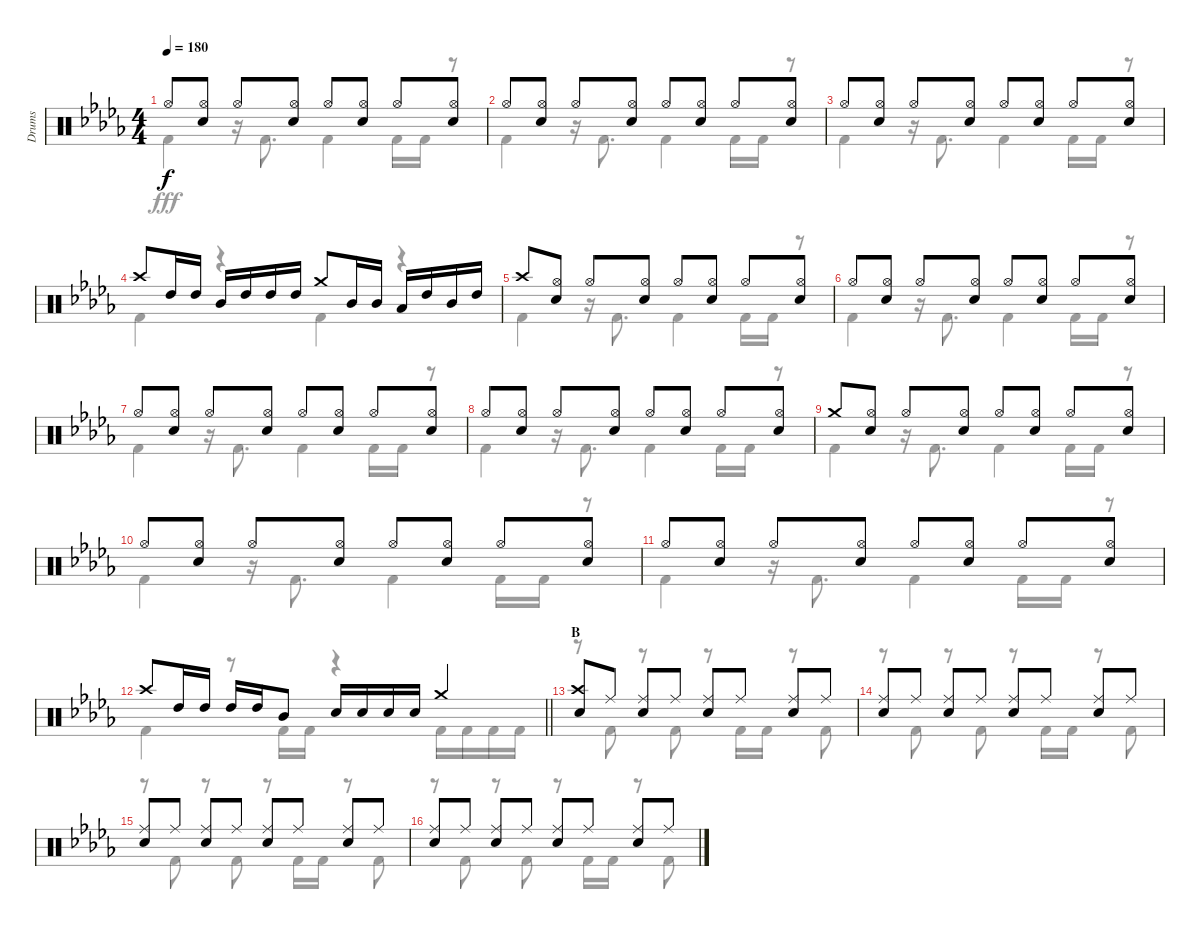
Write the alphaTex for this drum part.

\track ("Drums" "Drums") {instrument percussion}
\staff {score}
\articulation defaults
\voice
\ts (4 4)
\tempo 180
\clef neutral
\ks db "Hi-Hat (open)".8{dy f}
("Hi-Hat (open)" "Snare (hit) 2").8 "Hi-Hat (open)".8 ("Hi-Hat (open)" "Snare (hit) 2").8 "Hi-Hat (open)".8 ("Hi-Hat (open)" "Snare (hit) 2").8 "Hi-Hat (open)".8 ("Hi-Hat (open)" "Snare (hit) 2").8 |
"Hi-Hat (open)".8 ("Hi-Hat (open)" "Snare (hit) 2").8 "Hi-Hat (open)".8 ("Hi-Hat (open)" "Snare (hit) 2").8 "Hi-Hat (open)".8 ("Hi-Hat (open)" "Snare (hit) 2").8 "Hi-Hat (open)".8 ("Hi-Hat (open)" "Snare (hit) 2").8 |
"Hi-Hat (open)".8 ("Hi-Hat (open)" "Snare (hit) 2").8 "Hi-Hat (open)".8 ("Hi-Hat (open)" "Snare (hit) 2").8 "Hi-Hat (open)".8 ("Hi-Hat (open)" "Snare (hit) 2").8 "Hi-Hat (open)".8 ("Hi-Hat (open)" "Snare (hit) 2").8 |
"Crash high (hit)".8 "High Tom (hit)".16 "High Tom (hit)".16 "Mid Tom (hit)".16 "High Tom (hit)".16 "High Tom (hit)".16 "High Tom (hit)".16 "Crash medium (hit)".8 "Mid Tom (hit)".16 "Mid Tom (hit)".16 "Low Tom (hit)".16 "High Tom (hit)".16 "Mid Tom (hit)".16 "High Tom (hit)".16 |
"Crash high (hit)".8 ("Hi-Hat (open)" "Snare (hit) 2").8 "Hi-Hat (open)".8 ("Hi-Hat (open)" "Snare (hit) 2").8 "Hi-Hat (open)".8 ("Hi-Hat (open)" "Snare (hit) 2").8 "Hi-Hat (open)".8 ("Hi-Hat (open)" "Snare (hit) 2").8 |
"Hi-Hat (open)".8 ("Hi-Hat (open)" "Snare (hit) 2").8 "Hi-Hat (open)".8 ("Hi-Hat (open)" "Snare (hit) 2").8 "Hi-Hat (open)".8 ("Hi-Hat (open)" "Snare (hit) 2").8 "Hi-Hat (open)".8 ("Hi-Hat (open)" "Snare (hit) 2").8 |
"Hi-Hat (open)".8 ("Hi-Hat (open)" "Snare (hit) 2").8 "Hi-Hat (open)".8 ("Hi-Hat (open)" "Snare (hit) 2").8 "Hi-Hat (open)".8 ("Hi-Hat (open)" "Snare (hit) 2").8 "Hi-Hat (open)".8 ("Hi-Hat (open)" "Snare (hit) 2").8 |
"Hi-Hat (open)".8 ("Hi-Hat (open)" "Snare (hit) 2").8 "Hi-Hat (open)".8 ("Hi-Hat (open)" "Snare (hit) 2").8 "Hi-Hat (open)".8 ("Hi-Hat (open)" "Snare (hit) 2").8 "Hi-Hat (open)".8 ("Hi-Hat (open)" "Snare (hit) 2").8 |
"Crash medium (hit)".8 ("Hi-Hat (open)" "Snare (hit) 2").8 "Hi-Hat (open)".8 ("Hi-Hat (open)" "Snare (hit) 2").8 "Hi-Hat (open)".8 ("Hi-Hat (open)" "Snare (hit) 2").8 "Hi-Hat (open)".8 ("Hi-Hat (open)" "Snare (hit) 2").8 |
"Hi-Hat (open)".8 ("Hi-Hat (open)" "Snare (hit) 2").8 "Hi-Hat (open)".8 ("Hi-Hat (open)" "Snare (hit) 2").8 "Hi-Hat (open)".8 ("Hi-Hat (open)" "Snare (hit) 2").8 "Hi-Hat (open)".8 ("Hi-Hat (open)" "Snare (hit) 2").8 |
"Hi-Hat (open)".8 ("Hi-Hat (open)" "Snare (hit) 2").8 "Hi-Hat (open)".8 ("Hi-Hat (open)" "Snare (hit) 2").8 "Hi-Hat (open)".8 ("Hi-Hat (open)" "Snare (hit) 2").8 "Hi-Hat (open)".8 ("Hi-Hat (open)" "Snare (hit) 2").8 |
\barLineRight lightlight "Crash high (hit)".8 "High Tom (hit)".16 "High Tom (hit)".16 "High Tom (hit)".16 "High Tom (hit)".16 "Mid Tom (hit)".8 "Snare (hit) 2".16 "Snare (hit) 2".16 "Snare (hit) 2".16 "Snare (hit) 2".16 "Crash medium (hit)".4
|
\section ("" "B")
("Crash high (hit)" "Snare (hit) 2").8 "Ride (middle)".8 ("Ride (middle)" "Snare (hit) 2").8 "Ride (middle)".8 ("Ride (middle)" "Snare (hit) 2").8 "Ride (middle)".8 ("Ride (middle)" "Snare (hit) 2").8 "Ride (middle)".8 |
("Ride (middle)" "Snare (hit) 2").8 "Ride (middle)".8 ("Ride (middle)" "Snare (hit) 2").8 "Ride (middle)".8 ("Ride (middle)" "Snare (hit) 2").8 "Ride (middle)".8 ("Ride (middle)" "Snare (hit) 2").8 "Ride (middle)".8 |
("Ride (middle)" "Snare (hit) 2").8 "Ride (middle)".8 ("Ride (middle)" "Snare (hit) 2").8 "Ride (middle)".8 ("Ride (middle)" "Snare (hit) 2").8 "Ride (middle)".8 ("Ride (middle)" "Snare (hit) 2").8 "Ride (middle)".8 |
("Ride (middle)" "Snare (hit) 2").8 "Ride (middle)".8 ("Ride (middle)" "Snare (hit) 2").8 "Ride (middle)".8 ("Ride (middle)" "Snare (hit) 2").8 "Ride (middle)".8 ("Ride (middle)" "Snare (hit) 2").8 "Ride (middle)".8
\voice
\clef neutral
\ottava regular
\simile none
\ks db "Kick (hit) 2".4{dy fff}
r.16 "Kick (hit) 2".8{d} "Kick (hit) 2".4 "Kick (hit) 2".16 "Kick (hit) 2".16 r.8 |
"Kick (hit) 2".4 r.16 "Kick (hit) 2".8{d} "Kick (hit) 2".4 "Kick (hit) 2".16 "Kick (hit) 2".16 r.8 |
"Kick (hit) 2".4 r.16 "Kick (hit) 2".8{d} "Kick (hit) 2".4 "Kick (hit) 2".16 "Kick (hit) 2".16 r.8 |
"Kick (hit) 2".4 r.4 "Kick (hit) 2".4 r.4 |
"Kick (hit) 2".4 r.16 "Kick (hit) 2".8{d} "Kick (hit) 2".4 "Kick (hit) 2".16 "Kick (hit) 2".16 r.8 |
"Kick (hit) 2".4 r.16 "Kick (hit) 2".8{d} "Kick (hit) 2".4 "Kick (hit) 2".16 "Kick (hit) 2".16 r.8 |
"Kick (hit) 2".4 r.16 "Kick (hit) 2".8{d} "Kick (hit) 2".4 "Kick (hit) 2".16 "Kick (hit) 2".16 r.8 |
"Kick (hit) 2".4 r.16 "Kick (hit) 2".8{d} "Kick (hit) 2".4 "Kick (hit) 2".16 "Kick (hit) 2".16 r.8 |
"Kick (hit) 2".4 r.16 "Kick (hit) 2".8{d} "Kick (hit) 2".4 "Kick (hit) 2".16 "Kick (hit) 2".16 r.8 |
"Kick (hit) 2".4 r.16 "Kick (hit) 2".8{d} "Kick (hit) 2".4 "Kick (hit) 2".16 "Kick (hit) 2".16 r.8 |
"Kick (hit) 2".4 r.16 "Kick (hit) 2".8{d} "Kick (hit) 2".4 "Kick (hit) 2".16 "Kick (hit) 2".16 r.8 |
\barLineRight lightlight "Kick (hit) 2".4
r.8 "Kick (hit) 2".16 "Kick (hit) 2".16 r.4 "Kick (hit) 2".16 "Kick (hit) 2".16 "Kick (hit) 2".16 "Kick (hit) 2".16 |
r.8 "Kick (hit) 2".8 r.8 "Kick (hit) 2".8 r.8 "Kick (hit) 2".16 "Kick (hit) 2".16 r.8 "Kick (hit) 2".8 |
r.8 "Kick (hit) 2".8 r.8 "Kick (hit) 2".8 r.8 "Kick (hit) 2".16 "Kick (hit) 2".16 r.8 "Kick (hit) 2".8 |
r.8 "Kick (hit) 2".8 r.8 "Kick (hit) 2".8 r.8 "Kick (hit) 2".16 "Kick (hit) 2".16 r.8 "Kick (hit) 2".8 |
r.8 "Kick (hit) 2".8 r.8 "Kick (hit) 2".8 r.8 "Kick (hit) 2".16 "Kick (hit) 2".16 r.8 "Kick (hit) 2".8
